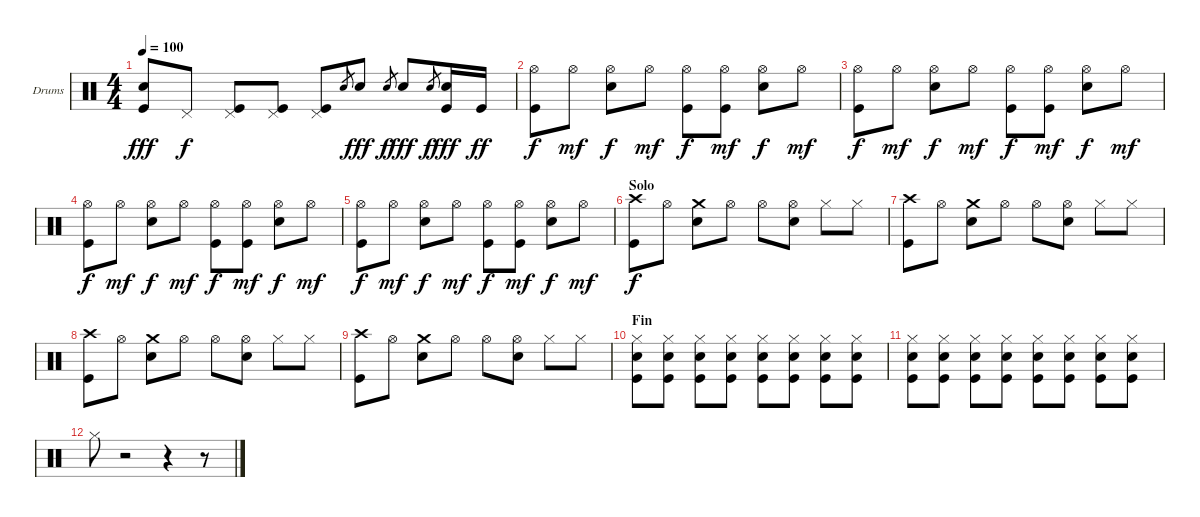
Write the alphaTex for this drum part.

\bracketExtendMode groupsimilarinstruments
\firstSystemTrackNameOrientation horizontal
\otherSystemsTrackNameOrientation horizontal
\track ("Drumkit" "Drums") {instrument percussion}
\staff {score}
\articulation defaults
\ts (4 4)
\tempo 100
\clef neutral
\ks c
("Snare (hit) 2" "Kick (hit)").8{dy fff} "Pedal Hi-Hat (hit)".8{dy f} ("Pedal Hi-Hat (hit)" "Kick (hit)").8 ("Pedal Hi-Hat (hit)" "Kick (hit)").8 ("Pedal Hi-Hat (hit)" "Kick (hit)").8 "Snare (hit) 2".8{gr} "Snare (hit) 2".8{dy fff} "Snare (hit) 2".8{gr dy f} "Snare (hit) 2".8{dy fff} "Snare (hit) 2".8{gr dy f} ("Snare (hit) 2" "Kick (hit)").16{dy fff} "Kick (hit)".16{dy ff} |
("Hi-Hat (open)" "Kick (hit)").8{dy f} "Hi-Hat (open)".8{dy mf} ("Hi-Hat (open)" "Snare (hit) 2").8{dy f} "Hi-Hat (open)".8{dy mf} ("Hi-Hat (open)" "Kick (hit)").8{dy f} ("Hi-Hat (open)" "Kick (hit)").8{dy mf} ("Hi-Hat (open)" "Snare (hit) 2").8{dy f} "Hi-Hat (open)".8{dy mf} |
("Hi-Hat (open)" "Kick (hit)").8{dy f} "Hi-Hat (open)".8{dy mf} ("Hi-Hat (open)" "Snare (hit) 2").8{dy f} "Hi-Hat (open)".8{dy mf} ("Hi-Hat (open)" "Kick (hit)").8{dy f} ("Hi-Hat (open)" "Kick (hit)").8{dy mf} ("Hi-Hat (open)" "Snare (hit) 2").8{dy f} "Hi-Hat (open)".8{dy mf} |
("Hi-Hat (open)" "Kick (hit)").8{dy f} "Hi-Hat (open)".8{dy mf} ("Hi-Hat (open)" "Snare (hit) 2").8{dy f} "Hi-Hat (open)".8{dy mf} ("Hi-Hat (open)" "Kick (hit)").8{dy f} ("Hi-Hat (open)" "Kick (hit)").8{dy mf} ("Hi-Hat (open)" "Snare (hit) 2").8{dy f} "Hi-Hat (open)".8{dy mf} |
("Hi-Hat (open)" "Kick (hit)").8{dy f} "Hi-Hat (open)".8{dy mf} ("Hi-Hat (open)" "Snare (hit) 2").8{dy f} "Hi-Hat (open)".8{dy mf} ("Hi-Hat (open)" "Kick (hit)").8{dy f} ("Hi-Hat (open)" "Kick (hit)").8{dy mf} ("Hi-Hat (open)" "Snare (hit) 2").8{dy f} "Hi-Hat (open)".8{dy mf} |
\section ("" "Solo")
("Crash high (hit)" "Kick (hit)").8{dy f} "Hi-Hat (open)".8 ("Crash medium (hit)" "Snare (hit) 2").8 "Hi-Hat (open)".8 "Hi-Hat (open)".8 ("Hi-Hat (open)" "Snare (hit) 2").8 "Hi-Hat (closed)".8 "Hi-Hat (closed)".8 |
("Crash high (hit)" "Kick (hit)").8 "Hi-Hat (open)".8 ("Crash medium (hit)" "Snare (hit) 2").8 "Hi-Hat (open)".8 "Hi-Hat (open)".8 ("Hi-Hat (open)" "Snare (hit) 2").8 "Hi-Hat (closed)".8 "Hi-Hat (closed)".8 |
("Crash high (hit)" "Kick (hit)").8 "Hi-Hat (open)".8 ("Crash medium (hit)" "Snare (hit) 2").8 "Hi-Hat (open)".8 "Hi-Hat (open)".8 ("Hi-Hat (open)" "Snare (hit) 2").8 "Hi-Hat (closed)".8 "Hi-Hat (closed)".8 |
("Crash high (hit)" "Kick (hit)").8 "Hi-Hat (open)".8 ("Crash medium (hit)" "Snare (hit) 2").8 "Hi-Hat (open)".8 "Hi-Hat (open)".8 ("Hi-Hat (open)" "Snare (hit) 2").8 "Hi-Hat (closed)".8 "Hi-Hat (closed)".8 |
\section ("" "Fin")
("Hi-Hat (closed)" "Snare (hit) 2" "Kick (hit)").8 ("Hi-Hat (closed)" "Snare (hit) 2" "Kick (hit)").8 ("Hi-Hat (closed)" "Snare (hit) 2" "Kick (hit)").8 ("Hi-Hat (closed)" "Snare (hit) 2" "Kick (hit)").8 ("Hi-Hat (closed)" "Snare (hit) 2" "Kick (hit)").8 ("Hi-Hat (closed)" "Snare (hit) 2" "Kick (hit)").8 ("Hi-Hat (closed)" "Snare (hit) 2" "Kick (hit)").8 ("Hi-Hat (closed)" "Snare (hit) 2" "Kick (hit)").8 |
("Hi-Hat (closed)" "Snare (hit) 2" "Kick (hit)").8 ("Hi-Hat (closed)" "Snare (hit) 2" "Kick (hit)").8 ("Hi-Hat (closed)" "Snare (hit) 2" "Kick (hit)").8 ("Hi-Hat (closed)" "Snare (hit) 2" "Kick (hit)").8 ("Hi-Hat (closed)" "Snare (hit) 2" "Kick (hit)").8 ("Hi-Hat (closed)" "Snare (hit) 2" "Kick (hit)").8 ("Hi-Hat (closed)" "Snare (hit) 2" "Kick (hit)").8 ("Hi-Hat (closed)" "Snare (hit) 2" "Kick (hit)").8 |
"Hi-Hat (closed)".8 r.2 r.4 r.8
